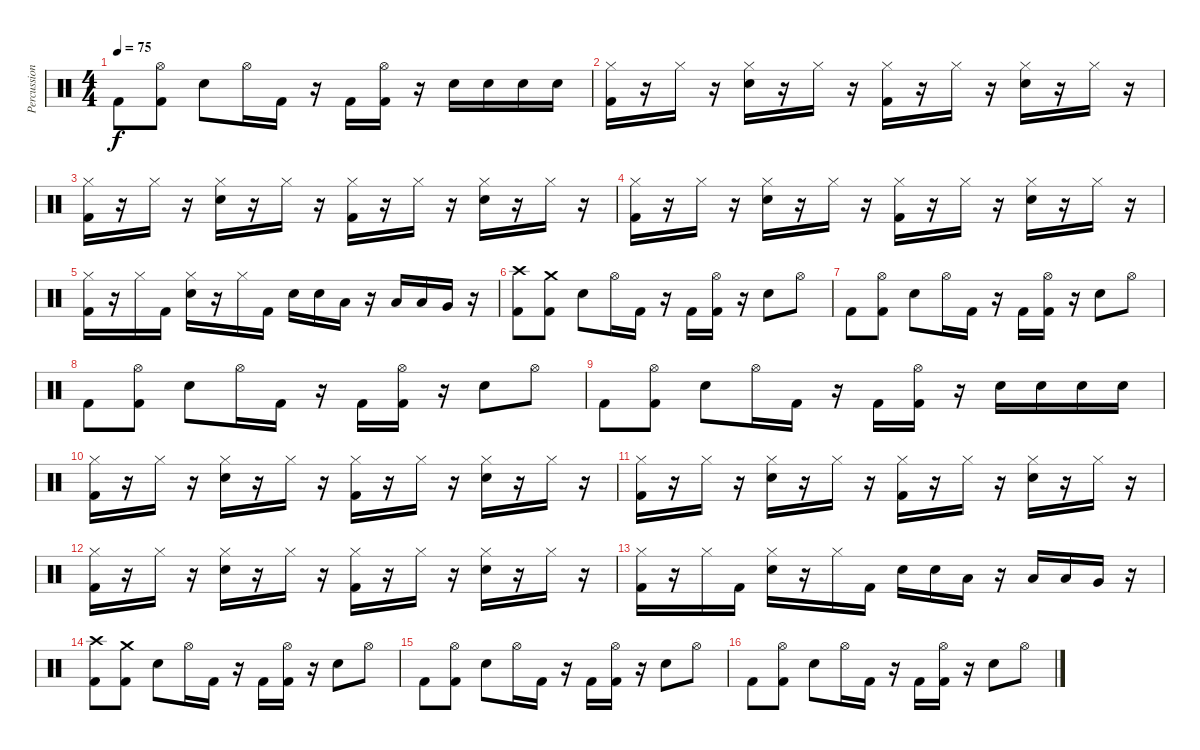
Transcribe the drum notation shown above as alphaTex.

\track ("Percussion" "Percussion") {instrument percussion}
\staff {score}
\articulation defaults
\ts (4 4)
\tempo 75
\clef neutral
\ks c "Kick (hit) 2".8{dy f}
("Hi-Hat (open)" "Kick (hit) 2").8 "Electric Snare (hit)".8 "Hi-Hat (open)".16 "Kick (hit) 2".16 r.16 "Kick (hit) 2".16 ("Hi-Hat (open)" "Kick (hit) 2").16 r.16 "Electric Snare (hit)".16 "Electric Snare (hit)".16 "Electric Snare (hit)".16 "Electric Snare (hit)".16 |
("Hi-Hat (closed)" "Kick (hit) 2").16 r.16 "Hi-Hat (closed)".16 r.16 ("Hi-Hat (closed)" "Electric Snare (hit)").16 r.16 "Hi-Hat (closed)".16 r.16 ("Hi-Hat (closed)" "Kick (hit) 2").16 r.16 "Hi-Hat (closed)".16 r.16 ("Hi-Hat (closed)" "Electric Snare (hit)").16 r.16 "Hi-Hat (closed)".16 r.16 |
("Hi-Hat (closed)" "Kick (hit) 2").16 r.16 "Hi-Hat (closed)".16 r.16 ("Hi-Hat (closed)" "Electric Snare (hit)").16 r.16 "Hi-Hat (closed)".16 r.16 ("Hi-Hat (closed)" "Kick (hit) 2").16 r.16 "Hi-Hat (closed)".16 r.16 ("Hi-Hat (closed)" "Electric Snare (hit)").16 r.16 "Hi-Hat (closed)".16 r.16 |
("Hi-Hat (closed)" "Kick (hit) 2").16 r.16 "Hi-Hat (closed)".16 r.16 ("Hi-Hat (closed)" "Electric Snare (hit)").16 r.16 "Hi-Hat (closed)".16 r.16 ("Hi-Hat (closed)" "Kick (hit) 2").16 r.16 "Hi-Hat (closed)".16 r.16 ("Hi-Hat (closed)" "Electric Snare (hit)").16 r.16 "Hi-Hat (closed)".16 r.16 |
("Hi-Hat (closed)" "Kick (hit) 2").16 r.16 "Hi-Hat (closed)".16 "Kick (hit) 2".16 ("Hi-Hat (closed)" "Electric Snare (hit)").16 r.16 "Hi-Hat (closed)".16 "Kick (hit) 2".16 "Electric Snare (hit)".16 "Electric Snare (hit)".16 "Low Tom (hit)".16 r.16 "Low Tom (hit)".16 "Low Tom (hit)".16 "Very Low Tom (hit)".16 r.16 |
("Crash high (hit)" "Kick (hit) 2").8 ("Crash medium (hit)" "Kick (hit) 2").8 "Electric Snare (hit)".8 "Hi-Hat (open)".16 "Kick (hit) 2".16 r.16 "Kick (hit) 2".16 ("Hi-Hat (open)" "Kick (hit) 2").16 r.16 "Electric Snare (hit)".8 "Hi-Hat (open)".8 |
"Kick (hit) 2".8 ("Hi-Hat (open)" "Kick (hit) 2").8 "Electric Snare (hit)".8 "Hi-Hat (open)".16 "Kick (hit) 2".16 r.16 "Kick (hit) 2".16 ("Hi-Hat (open)" "Kick (hit) 2").16 r.16 "Electric Snare (hit)".8 "Hi-Hat (open)".8 |
"Kick (hit) 2".8 ("Hi-Hat (open)" "Kick (hit) 2").8 "Electric Snare (hit)".8 "Hi-Hat (open)".16 "Kick (hit) 2".16 r.16 "Kick (hit) 2".16 ("Hi-Hat (open)" "Kick (hit) 2").16 r.16 "Electric Snare (hit)".8 "Hi-Hat (open)".8 |
"Kick (hit) 2".8 ("Hi-Hat (open)" "Kick (hit) 2").8 "Electric Snare (hit)".8 "Hi-Hat (open)".16 "Kick (hit) 2".16 r.16 "Kick (hit) 2".16 ("Hi-Hat (open)" "Kick (hit) 2").16 r.16 "Electric Snare (hit)".16 "Electric Snare (hit)".16 "Electric Snare (hit)".16 "Electric Snare (hit)".16 |
("Hi-Hat (closed)" "Kick (hit) 2").16 r.16 "Hi-Hat (closed)".16 r.16 ("Hi-Hat (closed)" "Electric Snare (hit)").16 r.16 "Hi-Hat (closed)".16 r.16 ("Hi-Hat (closed)" "Kick (hit) 2").16 r.16 "Hi-Hat (closed)".16 r.16 ("Hi-Hat (closed)" "Electric Snare (hit)").16 r.16 "Hi-Hat (closed)".16 r.16 |
("Hi-Hat (closed)" "Kick (hit) 2").16 r.16 "Hi-Hat (closed)".16 r.16 ("Hi-Hat (closed)" "Electric Snare (hit)").16 r.16 "Hi-Hat (closed)".16 r.16 ("Hi-Hat (closed)" "Kick (hit) 2").16 r.16 "Hi-Hat (closed)".16 r.16 ("Hi-Hat (closed)" "Electric Snare (hit)").16 r.16 "Hi-Hat (closed)".16 r.16 |
("Hi-Hat (closed)" "Kick (hit) 2").16 r.16 "Hi-Hat (closed)".16 r.16 ("Hi-Hat (closed)" "Electric Snare (hit)").16 r.16 "Hi-Hat (closed)".16 r.16 ("Hi-Hat (closed)" "Kick (hit) 2").16 r.16 "Hi-Hat (closed)".16 r.16 ("Hi-Hat (closed)" "Electric Snare (hit)").16 r.16 "Hi-Hat (closed)".16 r.16 |
("Hi-Hat (closed)" "Kick (hit) 2").16 r.16 "Hi-Hat (closed)".16 "Kick (hit) 2".16 ("Hi-Hat (closed)" "Electric Snare (hit)").16 r.16 "Hi-Hat (closed)".16 "Kick (hit) 2".16 "Electric Snare (hit)".16 "Electric Snare (hit)".16 "Low Tom (hit)".16 r.16 "Low Tom (hit)".16 "Low Tom (hit)".16 "Very Low Tom (hit)".16 r.16 |
("Crash high (hit)" "Kick (hit) 2").8 ("Crash medium (hit)" "Kick (hit) 2").8 "Electric Snare (hit)".8 "Hi-Hat (open)".16 "Kick (hit) 2".16 r.16 "Kick (hit) 2".16 ("Hi-Hat (open)" "Kick (hit) 2").16 r.16 "Electric Snare (hit)".8 "Hi-Hat (open)".8 |
"Kick (hit) 2".8 ("Hi-Hat (open)" "Kick (hit) 2").8 "Electric Snare (hit)".8 "Hi-Hat (open)".16 "Kick (hit) 2".16 r.16 "Kick (hit) 2".16 ("Hi-Hat (open)" "Kick (hit) 2").16 r.16 "Electric Snare (hit)".8 "Hi-Hat (open)".8 |
"Kick (hit) 2".8 ("Hi-Hat (open)" "Kick (hit) 2").8 "Electric Snare (hit)".8 "Hi-Hat (open)".16 "Kick (hit) 2".16 r.16 "Kick (hit) 2".16 ("Hi-Hat (open)" "Kick (hit) 2").16 r.16 "Electric Snare (hit)".8 "Hi-Hat (open)".8
